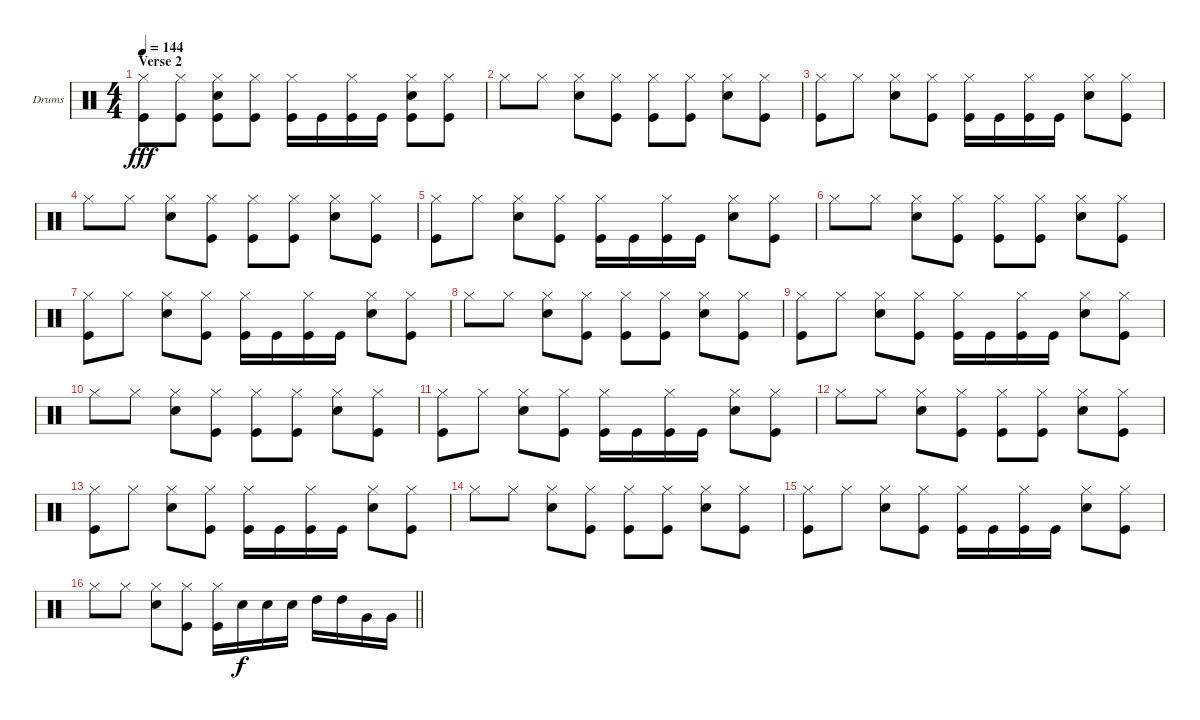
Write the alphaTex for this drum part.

\bracketExtendMode groupsimilarinstruments
\firstSystemTrackNameOrientation horizontal
\otherSystemsTrackNameOrientation horizontal
\track ("Drumkit" "Drums") {instrument percussion}
\staff {score}
\articulation defaults
\ts (4 4)
\section ("" "Verse 2")
\tempo 144
\clef neutral
\ks c
("Kick (hit)" "Hi-Hat (closed)").8{dy fff} ("Kick (hit)" "Hi-Hat (closed)").8 ("Kick (hit)" "Hi-Hat (closed)" "Snare (hit) 2").8 ("Kick (hit)" "Hi-Hat (closed)").8 ("Kick (hit)" "Hi-Hat (closed)").16 "Kick (hit)".16 ("Kick (hit)" "Hi-Hat (closed)").16 "Kick (hit)".16 ("Kick (hit)" "Hi-Hat (closed)" "Snare (hit) 2").8 ("Kick (hit)" "Hi-Hat (closed)").8 |
"Hi-Hat (closed)".8 "Hi-Hat (closed)".8 ("Hi-Hat (closed)" "Snare (hit) 2").8 ("Kick (hit)" "Hi-Hat (closed)").8 ("Kick (hit)" "Hi-Hat (closed)").8 ("Hi-Hat (closed)" "Kick (hit)").8 ("Hi-Hat (closed)" "Snare (hit) 2").8 ("Hi-Hat (closed)" "Kick (hit)").8 |
("Kick (hit)" "Hi-Hat (closed)").8 "Hi-Hat (closed)".8 ("Hi-Hat (closed)" "Snare (hit) 2").8 ("Kick (hit)" "Hi-Hat (closed)").8 ("Kick (hit)" "Hi-Hat (closed)").16 "Kick (hit)".16 ("Kick (hit)" "Hi-Hat (closed)").16 "Kick (hit)".16 ("Hi-Hat (closed)" "Snare (hit) 2").8 ("Kick (hit)" "Hi-Hat (closed)").8 |
"Hi-Hat (closed)".8 "Hi-Hat (closed)".8 ("Hi-Hat (closed)" "Snare (hit) 2").8 ("Kick (hit)" "Hi-Hat (closed)").8 ("Kick (hit)" "Hi-Hat (closed)").8 ("Hi-Hat (closed)" "Kick (hit)").8 ("Hi-Hat (closed)" "Snare (hit) 2").8 ("Hi-Hat (closed)" "Kick (hit)").8 |
("Kick (hit)" "Hi-Hat (closed)").8 "Hi-Hat (closed)".8 ("Hi-Hat (closed)" "Snare (hit) 2").8 ("Kick (hit)" "Hi-Hat (closed)").8 ("Kick (hit)" "Hi-Hat (closed)").16 "Kick (hit)".16 ("Kick (hit)" "Hi-Hat (closed)").16 "Kick (hit)".16 ("Hi-Hat (closed)" "Snare (hit) 2").8 ("Kick (hit)" "Hi-Hat (closed)").8 |
"Hi-Hat (closed)".8 "Hi-Hat (closed)".8 ("Hi-Hat (closed)" "Snare (hit) 2").8 ("Kick (hit)" "Hi-Hat (closed)").8 ("Kick (hit)" "Hi-Hat (closed)").8 ("Hi-Hat (closed)" "Kick (hit)").8 ("Hi-Hat (closed)" "Snare (hit) 2").8 ("Hi-Hat (closed)" "Kick (hit)").8 |
("Kick (hit)" "Hi-Hat (closed)").8 "Hi-Hat (closed)".8 ("Hi-Hat (closed)" "Snare (hit) 2").8 ("Kick (hit)" "Hi-Hat (closed)").8 ("Kick (hit)" "Hi-Hat (closed)").16 "Kick (hit)".16 ("Kick (hit)" "Hi-Hat (closed)").16 "Kick (hit)".16 ("Hi-Hat (closed)" "Snare (hit) 2").8 ("Kick (hit)" "Hi-Hat (closed)").8 |
"Hi-Hat (closed)".8 "Hi-Hat (closed)".8 ("Hi-Hat (closed)" "Snare (hit) 2").8 ("Kick (hit)" "Hi-Hat (closed)").8 ("Kick (hit)" "Hi-Hat (closed)").8 ("Hi-Hat (closed)" "Kick (hit)").8 ("Hi-Hat (closed)" "Snare (hit) 2").8 ("Hi-Hat (closed)" "Kick (hit)").8 |
("Kick (hit)" "Hi-Hat (closed)").8 "Hi-Hat (closed)".8 ("Hi-Hat (closed)" "Snare (hit) 2").8 ("Kick (hit)" "Hi-Hat (closed)").8 ("Kick (hit)" "Hi-Hat (closed)").16 "Kick (hit)".16 ("Kick (hit)" "Hi-Hat (closed)").16 "Kick (hit)".16 ("Hi-Hat (closed)" "Snare (hit) 2").8 ("Kick (hit)" "Hi-Hat (closed)").8 |
"Hi-Hat (closed)".8 "Hi-Hat (closed)".8 ("Hi-Hat (closed)" "Snare (hit) 2").8 ("Kick (hit)" "Hi-Hat (closed)").8 ("Kick (hit)" "Hi-Hat (closed)").8 ("Hi-Hat (closed)" "Kick (hit)").8 ("Hi-Hat (closed)" "Snare (hit) 2").8 ("Hi-Hat (closed)" "Kick (hit)").8 |
("Kick (hit)" "Hi-Hat (closed)").8 "Hi-Hat (closed)".8 ("Hi-Hat (closed)" "Snare (hit) 2").8 ("Kick (hit)" "Hi-Hat (closed)").8 ("Kick (hit)" "Hi-Hat (closed)").16 "Kick (hit)".16 ("Kick (hit)" "Hi-Hat (closed)").16 "Kick (hit)".16 ("Hi-Hat (closed)" "Snare (hit) 2").8 ("Kick (hit)" "Hi-Hat (closed)").8 |
"Hi-Hat (closed)".8 "Hi-Hat (closed)".8 ("Hi-Hat (closed)" "Snare (hit) 2").8 ("Kick (hit)" "Hi-Hat (closed)").8 ("Kick (hit)" "Hi-Hat (closed)").8 ("Hi-Hat (closed)" "Kick (hit)").8 ("Hi-Hat (closed)" "Snare (hit) 2").8 ("Hi-Hat (closed)" "Kick (hit)").8 |
("Kick (hit)" "Hi-Hat (closed)").8 "Hi-Hat (closed)".8 ("Hi-Hat (closed)" "Snare (hit) 2").8 ("Kick (hit)" "Hi-Hat (closed)").8 ("Kick (hit)" "Hi-Hat (closed)").16 "Kick (hit)".16 ("Kick (hit)" "Hi-Hat (closed)").16 "Kick (hit)".16 ("Hi-Hat (closed)" "Snare (hit) 2").8 ("Kick (hit)" "Hi-Hat (closed)").8 |
"Hi-Hat (closed)".8 "Hi-Hat (closed)".8 ("Hi-Hat (closed)" "Snare (hit) 2").8 ("Kick (hit)" "Hi-Hat (closed)").8 ("Kick (hit)" "Hi-Hat (closed)").8 ("Hi-Hat (closed)" "Kick (hit)").8 ("Hi-Hat (closed)" "Snare (hit) 2").8 ("Hi-Hat (closed)" "Kick (hit)").8 |
("Kick (hit)" "Hi-Hat (closed)").8 "Hi-Hat (closed)".8 ("Hi-Hat (closed)" "Snare (hit) 2").8 ("Kick (hit)" "Hi-Hat (closed)").8 ("Kick (hit)" "Hi-Hat (closed)").16 "Kick (hit)".16 ("Kick (hit)" "Hi-Hat (closed)").16 "Kick (hit)".16 ("Hi-Hat (closed)" "Snare (hit) 2").8 ("Kick (hit)" "Hi-Hat (closed)").8 |
\barLineRight lightlight "Hi-Hat (closed)".8 "Hi-Hat (closed)".8
("Hi-Hat (closed)" "Snare (hit) 2").8 ("Kick (hit)" "Hi-Hat (closed)").8 ("Kick (hit)" "Hi-Hat (closed)").16 "Snare (hit) 2".16{dy f} "Snare (hit) 2".16 "Snare (hit) 2".16 "High Tom (hit)".16 "High Tom (hit)".16 "Very Low Tom (hit)".16 "Very Low Tom (hit)".16
